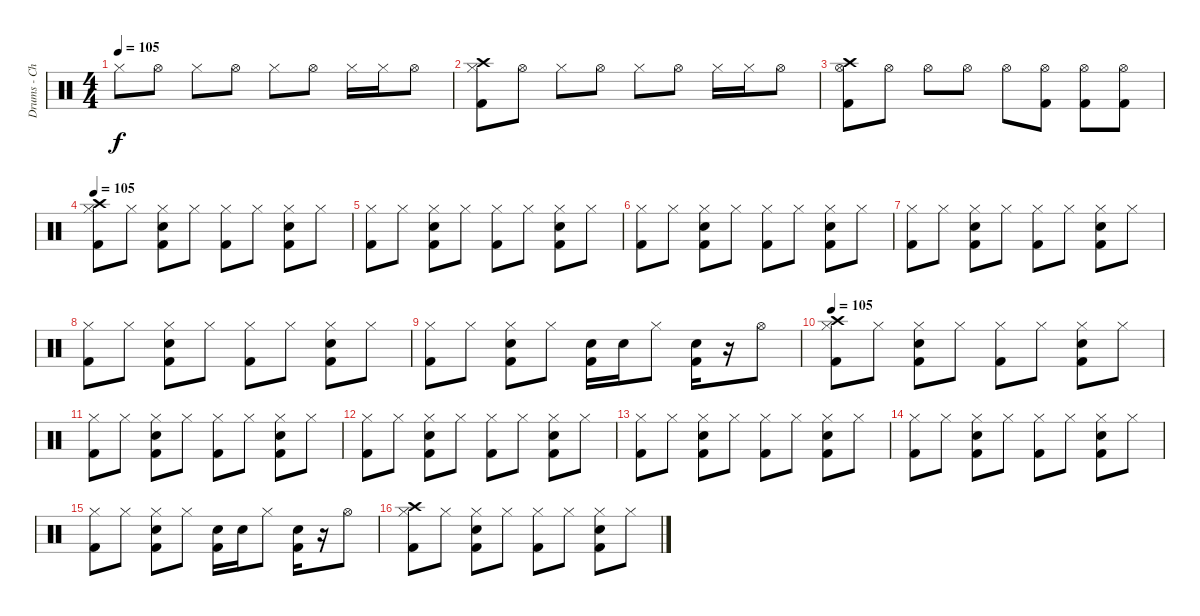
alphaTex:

\track ("Drums - Christoph Schneider" "Drums - Ch") {instrument percussion}
\staff {score}
\articulation defaults
\ts (4 4)
\tempo 105
\clef neutral
\ks c "Hi-Hat (closed)".8{dy f} "Hi-Hat (open)".8 "Hi-Hat (closed)".8 "Hi-Hat (open)".8 "Hi-Hat (closed)".8 "Hi-Hat (open)".8 "Hi-Hat (closed)".16 "Hi-Hat (closed)".16 "Hi-Hat (open)".8
|
("Crash high (hit)" "Hi-Hat (closed)" "Kick (hit) 2").8 "Hi-Hat (open)".8 "Hi-Hat (closed)".8 "Hi-Hat (open)".8 "Hi-Hat (closed)".8 "Hi-Hat (open)".8 "Hi-Hat (closed)".16 "Hi-Hat (closed)".16 "Hi-Hat (open)".8 |
("Crash high (hit)" "Hi-Hat (open)" "Kick (hit) 2").8 "Hi-Hat (open)".8 "Hi-Hat (open)".8 "Hi-Hat (open)".8 "Hi-Hat (open)".8 ("Hi-Hat (open)" "Kick (hit) 2").8 ("Hi-Hat (open)" "Kick (hit) 2").8 ("Hi-Hat (open)" "Kick (hit) 2").8 |
\tempo 105
("Crash high (hit)" "Hi-Hat (closed)" "Kick (hit) 2").8 "Hi-Hat (closed)".8 ("Hi-Hat (closed)" "Snare (hit) 2" "Kick (hit) 2").8 "Hi-Hat (closed)".8 ("Hi-Hat (closed)" "Kick (hit) 2").8 "Hi-Hat (closed)".8 ("Hi-Hat (closed)" "Snare (hit) 2" "Kick (hit) 2").8 "Hi-Hat (closed)".8 |
("Hi-Hat (closed)" "Kick (hit) 2").8 "Hi-Hat (closed)".8 ("Hi-Hat (closed)" "Snare (hit) 2" "Kick (hit) 2").8 "Hi-Hat (closed)".8 ("Hi-Hat (closed)" "Kick (hit) 2").8 "Hi-Hat (closed)".8 ("Hi-Hat (closed)" "Snare (hit) 2" "Kick (hit) 2").8 "Hi-Hat (closed)".8 |
("Hi-Hat (closed)" "Kick (hit) 2").8 "Hi-Hat (closed)".8 ("Hi-Hat (closed)" "Snare (hit) 2" "Kick (hit) 2").8 "Hi-Hat (closed)".8 ("Hi-Hat (closed)" "Kick (hit) 2").8 "Hi-Hat (closed)".8 ("Hi-Hat (closed)" "Snare (hit) 2" "Kick (hit) 2").8 "Hi-Hat (closed)".8 |
("Hi-Hat (closed)" "Kick (hit) 2").8 "Hi-Hat (closed)".8 ("Hi-Hat (closed)" "Snare (hit) 2" "Kick (hit) 2").8 "Hi-Hat (closed)".8 ("Hi-Hat (closed)" "Kick (hit) 2").8 "Hi-Hat (closed)".8 ("Hi-Hat (closed)" "Snare (hit) 2" "Kick (hit) 2").8 "Hi-Hat (closed)".8 |
("Hi-Hat (closed)" "Kick (hit) 2").8 "Hi-Hat (closed)".8 ("Hi-Hat (closed)" "Snare (hit) 2" "Kick (hit) 2").8 "Hi-Hat (closed)".8 ("Hi-Hat (closed)" "Kick (hit) 2").8 "Hi-Hat (closed)".8 ("Hi-Hat (closed)" "Snare (hit) 2" "Kick (hit) 2").8 "Hi-Hat (closed)".8 |
("Hi-Hat (closed)" "Kick (hit) 2").8 "Hi-Hat (closed)".8 ("Hi-Hat (closed)" "Snare (hit) 2" "Kick (hit) 2").8 "Hi-Hat (closed)".8 ("Snare (hit) 2" "Kick (hit) 2").16 "Snare (hit) 2".16 "Hi-Hat (closed)".8 ("Snare (hit) 2" "Kick (hit) 2").16 r.16 "Hi-Hat (open)".8 |
\tempo 105
("Crash high (hit)" "Hi-Hat (closed)" "Kick (hit) 2").8 "Hi-Hat (closed)".8 ("Hi-Hat (closed)" "Snare (hit) 2" "Kick (hit) 2").8 "Hi-Hat (closed)".8 ("Hi-Hat (closed)" "Kick (hit) 2").8 "Hi-Hat (closed)".8 ("Hi-Hat (closed)" "Snare (hit) 2" "Kick (hit) 2").8 "Hi-Hat (closed)".8 |
("Hi-Hat (closed)" "Kick (hit) 2").8 "Hi-Hat (closed)".8 ("Hi-Hat (closed)" "Snare (hit) 2" "Kick (hit) 2").8 "Hi-Hat (closed)".8 ("Hi-Hat (closed)" "Kick (hit) 2").8 "Hi-Hat (closed)".8 ("Hi-Hat (closed)" "Snare (hit) 2" "Kick (hit) 2").8 "Hi-Hat (closed)".8 |
("Hi-Hat (closed)" "Kick (hit) 2").8 "Hi-Hat (closed)".8 ("Hi-Hat (closed)" "Snare (hit) 2" "Kick (hit) 2").8 "Hi-Hat (closed)".8 ("Hi-Hat (closed)" "Kick (hit) 2").8 "Hi-Hat (closed)".8 ("Hi-Hat (closed)" "Snare (hit) 2" "Kick (hit) 2").8 "Hi-Hat (closed)".8 |
("Hi-Hat (closed)" "Kick (hit) 2").8 "Hi-Hat (closed)".8 ("Hi-Hat (closed)" "Snare (hit) 2" "Kick (hit) 2").8 "Hi-Hat (closed)".8 ("Hi-Hat (closed)" "Kick (hit) 2").8 "Hi-Hat (closed)".8 ("Hi-Hat (closed)" "Snare (hit) 2" "Kick (hit) 2").8 "Hi-Hat (closed)".8 |
("Hi-Hat (closed)" "Kick (hit) 2").8 "Hi-Hat (closed)".8 ("Hi-Hat (closed)" "Snare (hit) 2" "Kick (hit) 2").8 "Hi-Hat (closed)".8 ("Hi-Hat (closed)" "Kick (hit) 2").8 "Hi-Hat (closed)".8 ("Hi-Hat (closed)" "Snare (hit) 2" "Kick (hit) 2").8 "Hi-Hat (closed)".8 |
("Hi-Hat (closed)" "Kick (hit) 2").8 "Hi-Hat (closed)".8 ("Hi-Hat (closed)" "Snare (hit) 2" "Kick (hit) 2").8 "Hi-Hat (closed)".8 ("Snare (hit) 2" "Kick (hit) 2").16 "Snare (hit) 2".16 "Hi-Hat (closed)".8 ("Snare (hit) 2" "Kick (hit) 2").16 r.16 "Hi-Hat (open)".8 |
("Crash high (hit)" "Hi-Hat (closed)" "Kick (hit) 2").8 "Hi-Hat (closed)".8 ("Hi-Hat (closed)" "Snare (hit) 2" "Kick (hit) 2").8 "Hi-Hat (closed)".8 ("Hi-Hat (closed)" "Kick (hit) 2").8 "Hi-Hat (closed)".8 ("Hi-Hat (closed)" "Snare (hit) 2" "Kick (hit) 2").8 "Hi-Hat (closed)".8
